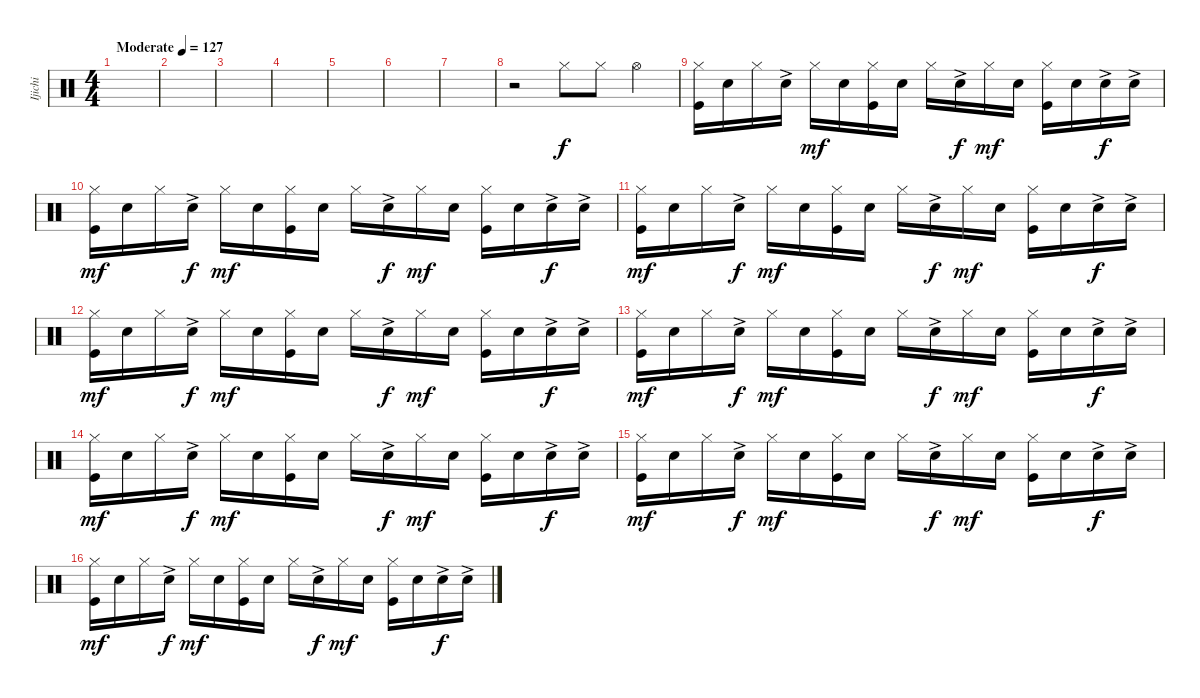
\track ("Ijichi" "Ijichi") {instrument percussion}
\staff {score}
\articulation defaults
\ts (4 4)
\tempo (127 "Moderate")
\clef neutral
\ks c
|
|
|
|
|
|
|
r.2 "Hi-Hat (closed)".8 "Hi-Hat (closed)".8 "Hi-Hat (open)".4 |
("Hi-Hat (closed)" "Kick (hit)").16 "Electric Snare (hit)".16 "Hi-Hat (closed)".16 "Electric Snare (hit)"{ac}.16{dy f} "Hi-Hat (closed)".16{dy mf} "Electric Snare (hit)".16 ("Hi-Hat (closed)" "Kick (hit)").16 "Electric Snare (hit)".16 "Hi-Hat (closed)".16 "Electric Snare (hit)"{ac}.16{dy f} "Hi-Hat (closed)".16{dy mf} "Electric Snare (hit)".16 ("Hi-Hat (closed)" "Kick (hit)").16 "Electric Snare (hit)".16 "Electric Snare (hit)"{ac}.16{dy f} "Electric Snare (hit)"{ac}.16 |
("Hi-Hat (closed)" "Kick (hit)").16{dy mf} "Electric Snare (hit)".16 "Hi-Hat (closed)".16 "Electric Snare (hit)"{ac}.16{dy f} "Hi-Hat (closed)".16{dy mf} "Electric Snare (hit)".16 ("Hi-Hat (closed)" "Kick (hit)").16 "Electric Snare (hit)".16 "Hi-Hat (closed)".16 "Electric Snare (hit)"{ac}.16{dy f} "Hi-Hat (closed)".16{dy mf} "Electric Snare (hit)".16 ("Hi-Hat (closed)" "Kick (hit)").16 "Electric Snare (hit)".16 "Electric Snare (hit)"{ac}.16{dy f} "Electric Snare (hit)"{ac}.16 |
("Hi-Hat (closed)" "Kick (hit)").16{dy mf} "Electric Snare (hit)".16 "Hi-Hat (closed)".16 "Electric Snare (hit)"{ac}.16{dy f} "Hi-Hat (closed)".16{dy mf} "Electric Snare (hit)".16 ("Hi-Hat (closed)" "Kick (hit)").16 "Electric Snare (hit)".16 "Hi-Hat (closed)".16 "Electric Snare (hit)"{ac}.16{dy f} "Hi-Hat (closed)".16{dy mf} "Electric Snare (hit)".16 ("Hi-Hat (closed)" "Kick (hit)").16 "Electric Snare (hit)".16 "Electric Snare (hit)"{ac}.16{dy f} "Electric Snare (hit)"{ac}.16 |
("Hi-Hat (closed)" "Kick (hit)").16{dy mf} "Electric Snare (hit)".16 "Hi-Hat (closed)".16 "Electric Snare (hit)"{ac}.16{dy f} "Hi-Hat (closed)".16{dy mf} "Electric Snare (hit)".16 ("Hi-Hat (closed)" "Kick (hit)").16 "Electric Snare (hit)".16 "Hi-Hat (closed)".16 "Electric Snare (hit)"{ac}.16{dy f} "Hi-Hat (closed)".16{dy mf} "Electric Snare (hit)".16 ("Hi-Hat (closed)" "Kick (hit)").16 "Electric Snare (hit)".16 "Electric Snare (hit)"{ac}.16{dy f} "Electric Snare (hit)"{ac}.16 |
("Hi-Hat (closed)" "Kick (hit)").16{dy mf} "Electric Snare (hit)".16 "Hi-Hat (closed)".16 "Electric Snare (hit)"{ac}.16{dy f} "Hi-Hat (closed)".16{dy mf} "Electric Snare (hit)".16 ("Hi-Hat (closed)" "Kick (hit)").16 "Electric Snare (hit)".16 "Hi-Hat (closed)".16 "Electric Snare (hit)"{ac}.16{dy f} "Hi-Hat (closed)".16{dy mf} "Electric Snare (hit)".16 ("Hi-Hat (closed)" "Kick (hit)").16 "Electric Snare (hit)".16 "Electric Snare (hit)"{ac}.16{dy f} "Electric Snare (hit)"{ac}.16 |
("Hi-Hat (closed)" "Kick (hit)").16{dy mf} "Electric Snare (hit)".16 "Hi-Hat (closed)".16 "Electric Snare (hit)"{ac}.16{dy f} "Hi-Hat (closed)".16{dy mf} "Electric Snare (hit)".16 ("Hi-Hat (closed)" "Kick (hit)").16 "Electric Snare (hit)".16 "Hi-Hat (closed)".16 "Electric Snare (hit)"{ac}.16{dy f} "Hi-Hat (closed)".16{dy mf} "Electric Snare (hit)".16 ("Hi-Hat (closed)" "Kick (hit)").16 "Electric Snare (hit)".16 "Electric Snare (hit)"{ac}.16{dy f} "Electric Snare (hit)"{ac}.16 |
("Hi-Hat (closed)" "Kick (hit)").16{dy mf} "Electric Snare (hit)".16 "Hi-Hat (closed)".16 "Electric Snare (hit)"{ac}.16{dy f} "Hi-Hat (closed)".16{dy mf} "Electric Snare (hit)".16 ("Hi-Hat (closed)" "Kick (hit)").16 "Electric Snare (hit)".16 "Hi-Hat (closed)".16 "Electric Snare (hit)"{ac}.16{dy f} "Hi-Hat (closed)".16{dy mf} "Electric Snare (hit)".16 ("Hi-Hat (closed)" "Kick (hit)").16 "Electric Snare (hit)".16 "Electric Snare (hit)"{ac}.16{dy f} "Electric Snare (hit)"{ac}.16 |
("Hi-Hat (closed)" "Kick (hit)").16{dy mf} "Electric Snare (hit)".16 "Hi-Hat (closed)".16 "Electric Snare (hit)"{ac}.16{dy f} "Hi-Hat (closed)".16{dy mf} "Electric Snare (hit)".16 ("Hi-Hat (closed)" "Kick (hit)").16 "Electric Snare (hit)".16 "Hi-Hat (closed)".16 "Electric Snare (hit)"{ac}.16{dy f} "Hi-Hat (closed)".16{dy mf} "Electric Snare (hit)".16 ("Hi-Hat (closed)" "Kick (hit)").16 "Electric Snare (hit)".16 "Electric Snare (hit)"{ac}.16{dy f} "Electric Snare (hit)"{ac}.16
